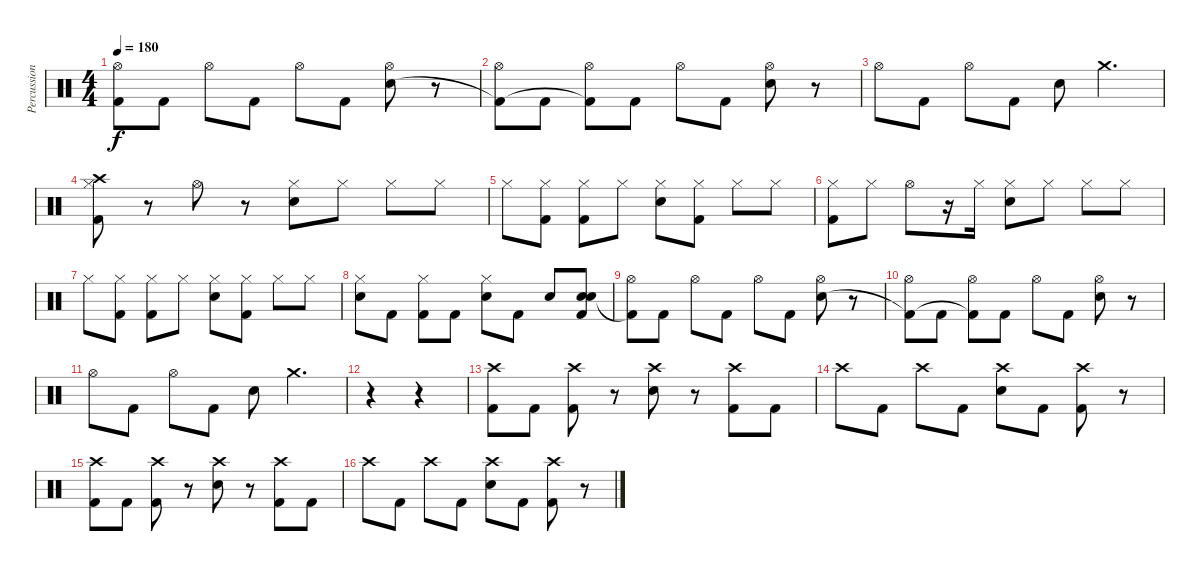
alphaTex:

\track ("Percussion" "Percussion") {instrument percussion}
\staff {score}
\articulation defaults
\ts (4 4)
\tempo 180
\clef neutral
\ks c
("Hi-Hat (open)" "Kick (hit) 2"{t}).8{dy f} "Kick (hit) 2".8 "Hi-Hat (open)".8 "Kick (hit) 2".8 "Hi-Hat (open)".8 "Kick (hit) 2".8 ("Hi-Hat (open)" "Snare (hit) 2").8 r.8 |
("Hi-Hat (open)" "Kick (hit) 2"{t}).8 "Kick (hit) 2".8 ("Hi-Hat (open)" "Kick (hit) 2"{t}).8 "Kick (hit) 2".8 "Hi-Hat (open)".8 "Kick (hit) 2".8 ("Hi-Hat (open)" "Snare (hit) 2").8 r.8 |
"Hi-Hat (open)".8 "Kick (hit) 2".8 "Hi-Hat (open)".8 "Kick (hit) 2".8 "Snare (hit) 2".8 "Crash medium (hit)".4{d} |
("Crash high (hit)" "Hi-Hat (closed)" "Kick (hit) 2").8 r.8 "Hi-Hat (open)".8 r.8 ("Hi-Hat (closed)" "Snare (hit) 2").8 "Hi-Hat (closed)".8 "Hi-Hat (closed)".8 "Hi-Hat (closed)".8 |
"Hi-Hat (closed)".8 ("Hi-Hat (closed)" "Kick (hit) 2").8 ("Hi-Hat (closed)" "Kick (hit) 2").8 "Hi-Hat (closed)".8 ("Hi-Hat (closed)" "Snare (hit) 2").8 ("Hi-Hat (closed)" "Kick (hit) 2").8 "Hi-Hat (closed)".8 "Hi-Hat (closed)".8 |
("Hi-Hat (closed)" "Kick (hit) 2").8 "Hi-Hat (closed)".8 "Hi-Hat (open)".8 r.16 "Hi-Hat (closed)".16 ("Hi-Hat (closed)" "Snare (hit) 2").8 "Hi-Hat (closed)".8 "Hi-Hat (closed)".8 "Hi-Hat (closed)".8 |
"Hi-Hat (closed)".8 ("Hi-Hat (closed)" "Kick (hit) 2").8 ("Hi-Hat (closed)" "Kick (hit) 2").8 "Hi-Hat (closed)".8 ("Hi-Hat (closed)" "Snare (hit) 2").8 ("Hi-Hat (closed)" "Kick (hit) 2").8 "Hi-Hat (closed)".8 "Hi-Hat (closed)".8 |
("Hi-Hat (closed)" "Snare (hit) 2").8 "Kick (hit) 2".8 ("Hi-Hat (closed)" "Kick (hit) 2").8 "Kick (hit) 2".8 ("Hi-Hat (closed)" "Snare (hit) 2").8 "Kick (hit) 2".8 "Snare (hit) 2".8 ("Snare (hit) 2" "Snare (hit) 2" "Kick (hit) 2").8 |
("Hi-Hat (open)" "Kick (hit) 2"{t}).8 "Kick (hit) 2".8 "Hi-Hat (open)".8 "Kick (hit) 2".8 "Hi-Hat (open)".8 "Kick (hit) 2".8 ("Hi-Hat (open)" "Snare (hit) 2").8 r.8 |
("Hi-Hat (open)" "Kick (hit) 2"{t}).8 "Kick (hit) 2".8 ("Hi-Hat (open)" "Kick (hit) 2"{t}).8 "Kick (hit) 2".8 "Hi-Hat (open)".8 "Kick (hit) 2".8 ("Hi-Hat (open)" "Snare (hit) 2").8 r.8 |
"Hi-Hat (open)".8 "Kick (hit) 2".8 "Hi-Hat (open)".8 "Kick (hit) 2".8 "Snare (hit) 2".8 "Crash medium (hit)".4{d} |
r.4 r.4 |
("Crash high (hit)" "Kick (hit) 2").8 "Kick (hit) 2".8 ("Crash high (hit)" "Kick (hit) 2").8 r.8 ("Crash high (hit)" "Snare (hit) 2").8 r.8 ("Crash high (hit)" "Kick (hit) 2").8 "Kick (hit) 2".8 |
"Crash high (hit)".8 "Kick (hit) 2".8 "Crash high (hit)".8 "Kick (hit) 2".8 ("Crash high (hit)" "Snare (hit) 2").8 "Kick (hit) 2".8 ("Crash high (hit)" "Kick (hit) 2").8 r.8 |
("Crash high (hit)" "Kick (hit) 2").8 "Kick (hit) 2".8 ("Crash high (hit)" "Kick (hit) 2").8 r.8 ("Crash high (hit)" "Snare (hit) 2").8 r.8 ("Crash high (hit)" "Kick (hit) 2").8 "Kick (hit) 2".8 |
"Crash high (hit)".8 "Kick (hit) 2".8 "Crash high (hit)".8 "Kick (hit) 2".8 ("Crash high (hit)" "Snare (hit) 2").8 "Kick (hit) 2".8 ("Crash high (hit)" "Kick (hit) 2").8 r.8
